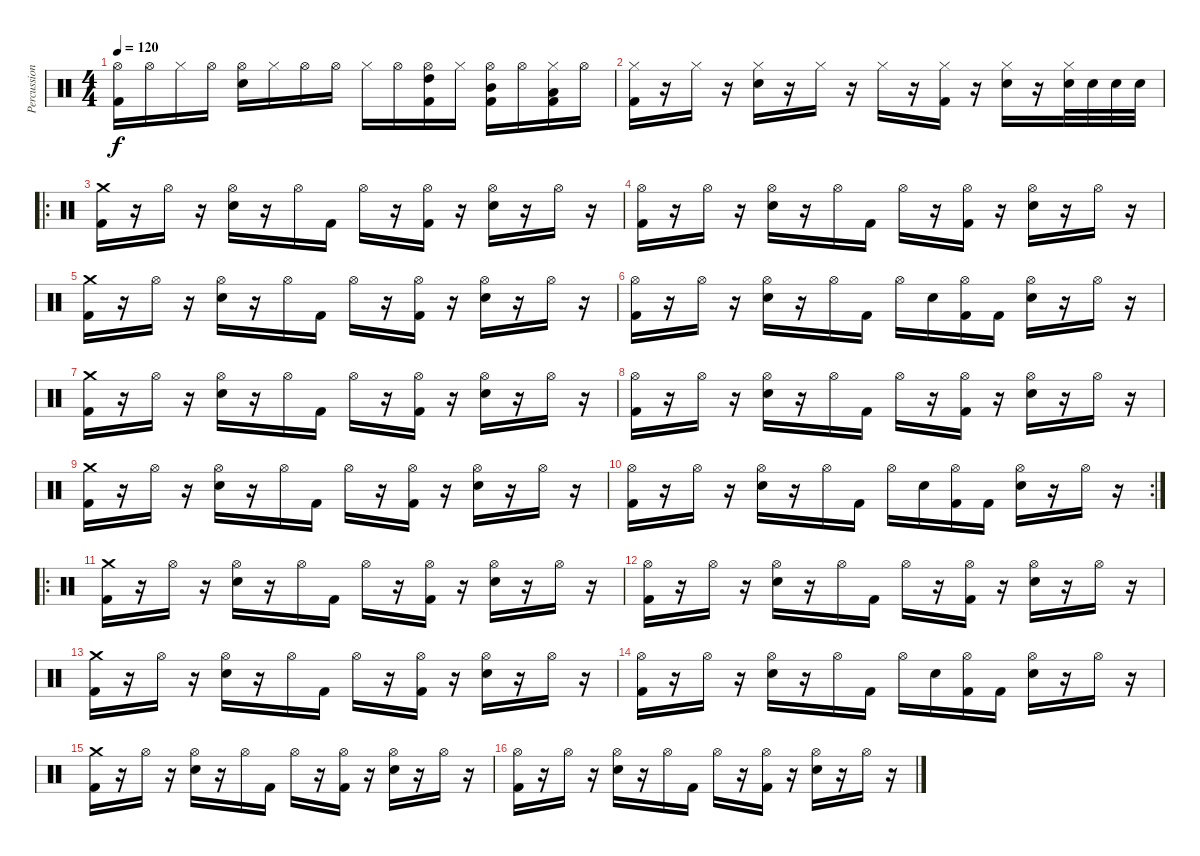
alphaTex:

\track ("Percussion" "Percussion") {instrument percussion}
\staff {score}
\articulation defaults
\ts (4 4)
\tempo 120
\clef neutral
\ks c
("Hi-Hat (open)" "Kick (hit) 2").16{dy f} "Hi-Hat (open)".16 "Hi-Hat (closed)".16 "Hi-Hat (open)".16 ("Hi-Hat (open)" "Electric Snare (hit)").16 "Hi-Hat (closed)".16 "Hi-Hat (open)".16 "Hi-Hat (open)".16 "Hi-Hat (closed)".16 "Hi-Hat (open)".16 ("Hi-Hat (open)" "High Tom (hit)" "Kick (hit) 2").16 "Hi-Hat (closed)".16 ("Hi-Hat (open)" "Mid Tom (hit)" "Kick (hit) 2").16 "Hi-Hat (open)".16 ("Hi-Hat (closed)" "Low Tom (hit)" "Kick (hit) 2").16 "Hi-Hat (open)".16 |
("Hi-Hat (closed)" "Kick (hit) 2").16 r.16 "Hi-Hat (closed)".16 r.16 ("Hi-Hat (closed)" "Electric Snare (hit)").16 r.16 "Hi-Hat (closed)".16 r.16 "Hi-Hat (closed)".16 r.16 ("Hi-Hat (closed)" "Kick (hit) 2").16 r.16 ("Hi-Hat (closed)" "Electric Snare (hit)").16 r.16 ("Hi-Hat (closed)" "Electric Snare (hit)").32 "Electric Snare (hit)".32 "Electric Snare (hit)".32 "Electric Snare (hit)".32 |
\ro
("Kick (hit) 2" "Crash medium (hit)").16 r.16 "Hi-Hat (open)".16 r.16 ("Electric Snare (hit)" "Hi-Hat (open)").16 r.16 "Hi-Hat (open)".16 "Kick (hit) 2".16 "Hi-Hat (open)".16 r.16 ("Hi-Hat (open)" "Kick (hit) 2").16 r.16 ("Hi-Hat (open)" "Electric Snare (hit)").16 r.16 "Hi-Hat (open)".16 r.16 |
("Hi-Hat (open)" "Kick (hit) 2").16 r.16 "Hi-Hat (open)".16 r.16 ("Hi-Hat (open)" "Electric Snare (hit)").16 r.16 "Hi-Hat (open)".16 "Kick (hit) 2".16 "Hi-Hat (open)".16 r.16 ("Hi-Hat (open)" "Kick (hit) 2").16 r.16 ("Hi-Hat (open)" "Electric Snare (hit)").16 r.16 "Hi-Hat (open)".16 r.16 |
("Kick (hit) 2" "Crash medium (hit)").16 r.16 "Hi-Hat (open)".16 r.16 ("Electric Snare (hit)" "Hi-Hat (open)").16 r.16 "Hi-Hat (open)".16 "Kick (hit) 2".16 "Hi-Hat (open)".16 r.16 ("Hi-Hat (open)" "Kick (hit) 2").16 r.16 ("Hi-Hat (open)" "Electric Snare (hit)").16 r.16 "Hi-Hat (open)".16 r.16 |
("Hi-Hat (open)" "Kick (hit) 2").16 r.16 "Hi-Hat (open)".16 r.16 ("Hi-Hat (open)" "Electric Snare (hit)").16 r.16 "Hi-Hat (open)".16 "Kick (hit) 2".16 "Hi-Hat (open)".16 "Electric Snare (hit)".16 ("Hi-Hat (open)" "Kick (hit) 2").16 "Kick (hit) 2".16 ("Hi-Hat (open)" "Electric Snare (hit)").16 r.16 "Hi-Hat (open)".16 r.16 |
("Kick (hit) 2" "Crash medium (hit)").16 r.16 "Hi-Hat (open)".16 r.16 ("Electric Snare (hit)" "Hi-Hat (open)").16 r.16 "Hi-Hat (open)".16 "Kick (hit) 2".16 "Hi-Hat (open)".16 r.16 ("Hi-Hat (open)" "Kick (hit) 2").16 r.16 ("Hi-Hat (open)" "Electric Snare (hit)").16 r.16 "Hi-Hat (open)".16 r.16 |
("Hi-Hat (open)" "Kick (hit) 2").16 r.16 "Hi-Hat (open)".16 r.16 ("Hi-Hat (open)" "Electric Snare (hit)").16 r.16 "Hi-Hat (open)".16 "Kick (hit) 2".16 "Hi-Hat (open)".16 r.16 ("Hi-Hat (open)" "Kick (hit) 2").16 r.16 ("Hi-Hat (open)" "Electric Snare (hit)").16 r.16 "Hi-Hat (open)".16 r.16 |
("Kick (hit) 2" "Crash medium (hit)").16 r.16 "Hi-Hat (open)".16 r.16 ("Electric Snare (hit)" "Hi-Hat (open)").16 r.16 "Hi-Hat (open)".16 "Kick (hit) 2".16 "Hi-Hat (open)".16 r.16 ("Hi-Hat (open)" "Kick (hit) 2").16 r.16 ("Hi-Hat (open)" "Electric Snare (hit)").16 r.16 "Hi-Hat (open)".16 r.16 |
\rc 2
("Hi-Hat (open)" "Kick (hit) 2").16 r.16 "Hi-Hat (open)".16 r.16 ("Hi-Hat (open)" "Electric Snare (hit)").16 r.16 "Hi-Hat (open)".16 "Kick (hit) 2".16 "Hi-Hat (open)".16 "Electric Snare (hit)".16 ("Hi-Hat (open)" "Kick (hit) 2").16 "Kick (hit) 2".16 ("Hi-Hat (open)" "Electric Snare (hit)").16 r.16 "Hi-Hat (open)".16 r.16 |
\ro
("Kick (hit) 2" "Crash medium (hit)").16 r.16 "Hi-Hat (open)".16 r.16 ("Electric Snare (hit)" "Hi-Hat (open)").16 r.16 "Hi-Hat (open)".16 "Kick (hit) 2".16 "Hi-Hat (open)".16 r.16 ("Hi-Hat (open)" "Kick (hit) 2").16 r.16 ("Hi-Hat (open)" "Electric Snare (hit)").16 r.16 "Hi-Hat (open)".16 r.16 |
("Hi-Hat (open)" "Kick (hit) 2").16 r.16 "Hi-Hat (open)".16 r.16 ("Hi-Hat (open)" "Electric Snare (hit)").16 r.16 "Hi-Hat (open)".16 "Kick (hit) 2".16 "Hi-Hat (open)".16 r.16 ("Hi-Hat (open)" "Kick (hit) 2").16 r.16 ("Hi-Hat (open)" "Electric Snare (hit)").16 r.16 "Hi-Hat (open)".16 r.16 |
("Kick (hit) 2" "Crash medium (hit)").16 r.16 "Hi-Hat (open)".16 r.16 ("Electric Snare (hit)" "Hi-Hat (open)").16 r.16 "Hi-Hat (open)".16 "Kick (hit) 2".16 "Hi-Hat (open)".16 r.16 ("Hi-Hat (open)" "Kick (hit) 2").16 r.16 ("Hi-Hat (open)" "Electric Snare (hit)").16 r.16 "Hi-Hat (open)".16 r.16 |
("Hi-Hat (open)" "Kick (hit) 2").16 r.16 "Hi-Hat (open)".16 r.16 ("Hi-Hat (open)" "Electric Snare (hit)").16 r.16 "Hi-Hat (open)".16 "Kick (hit) 2".16 "Hi-Hat (open)".16 "Electric Snare (hit)".16 ("Hi-Hat (open)" "Kick (hit) 2").16 "Kick (hit) 2".16 ("Hi-Hat (open)" "Electric Snare (hit)").16 r.16 "Hi-Hat (open)".16 r.16 |
("Kick (hit) 2" "Crash medium (hit)").16 r.16 "Hi-Hat (open)".16 r.16 ("Electric Snare (hit)" "Hi-Hat (open)").16 r.16 "Hi-Hat (open)".16 "Kick (hit) 2".16 "Hi-Hat (open)".16 r.16 ("Hi-Hat (open)" "Kick (hit) 2").16 r.16 ("Hi-Hat (open)" "Electric Snare (hit)").16 r.16 "Hi-Hat (open)".16 r.16 |
("Hi-Hat (open)" "Kick (hit) 2").16 r.16 "Hi-Hat (open)".16 r.16 ("Hi-Hat (open)" "Electric Snare (hit)").16 r.16 "Hi-Hat (open)".16 "Kick (hit) 2".16 "Hi-Hat (open)".16 r.16 ("Hi-Hat (open)" "Kick (hit) 2").16 r.16 ("Hi-Hat (open)" "Electric Snare (hit)").16 r.16 "Hi-Hat (open)".16 r.16
